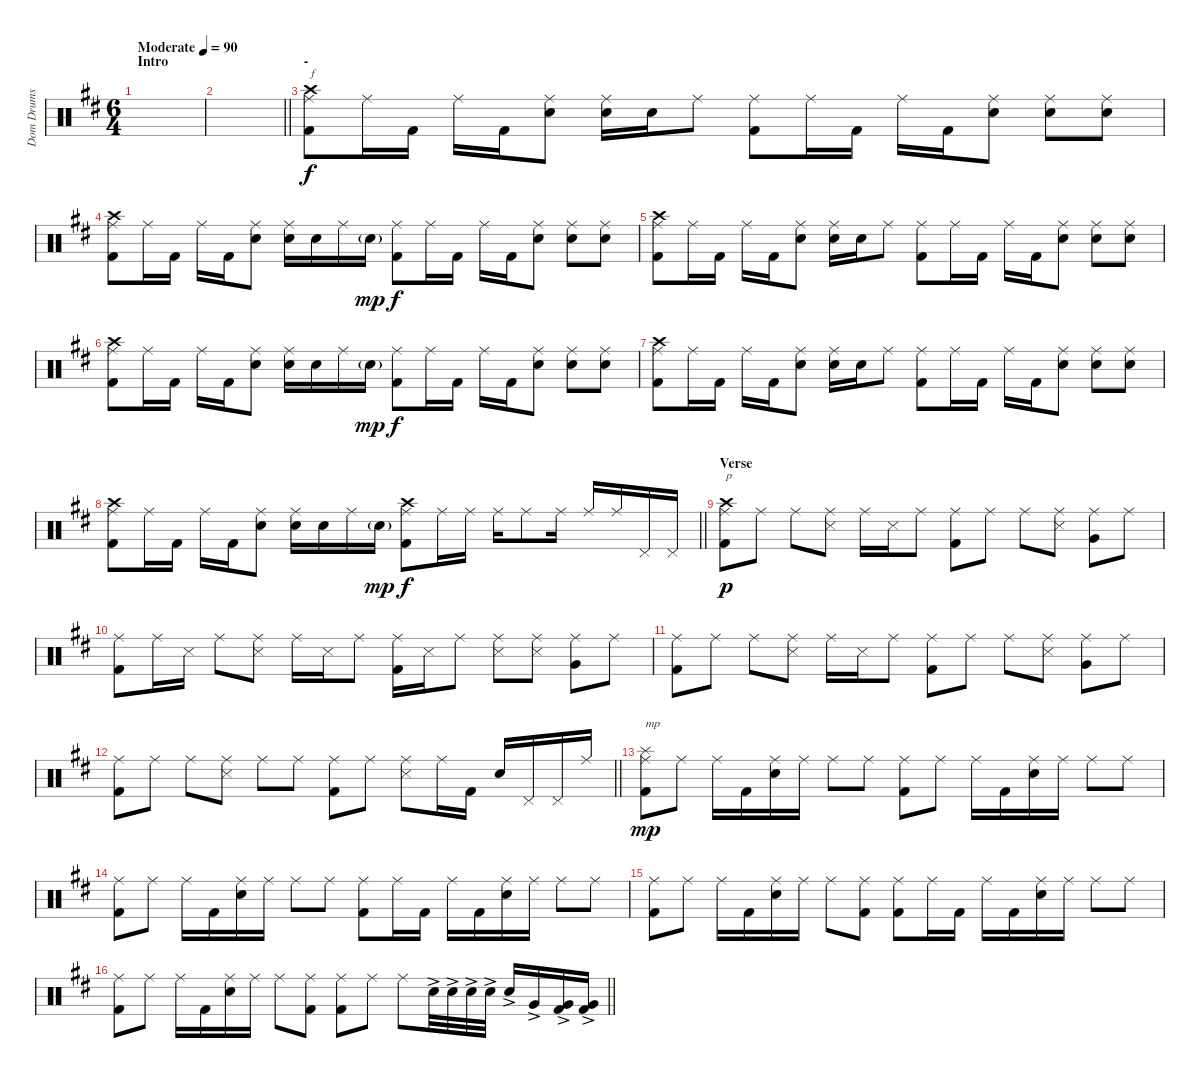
\track ("Dom Drums" "Dom Drums") {instrument percussion}
\staff {score}
\articulation defaults
\ts (6 4)
\section ("" "Intro")
\tempo (90 "Moderate")
\clef neutral
\ks bminor
|
\barLineRight lightlight
|
\section ("" "-")
("Crash high (hit)" "Ride (middle)" "Kick (hit) 2").8{txt "f"} "Ride (middle)".16 "Kick (hit) 2".16 "Ride (middle)".16 "Kick (hit) 2".16 ("Ride (middle)" "Electric Snare (hit)").8 ("Ride (middle)" "Electric Snare (hit)").16 "Electric Snare (hit)".16 "Ride (middle)".8 ("Ride (middle)" "Kick (hit) 2").8 "Ride (middle)".16 "Kick (hit) 2".16 "Ride (middle)".16 "Kick (hit) 2".16 ("Ride (middle)" "Electric Snare (hit)").8 ("Ride (middle)" "Electric Snare (hit)").8 ("Ride (middle)" "Electric Snare (hit)").8 |
("Crash high (hit)" "Ride (middle)" "Kick (hit) 2").8 "Ride (middle)".16 "Kick (hit) 2".16 "Ride (middle)".16 "Kick (hit) 2".16 ("Ride (middle)" "Electric Snare (hit)").8 ("Ride (middle)" "Electric Snare (hit)").16 "Electric Snare (hit)".16 "Ride (middle)".16 "Electric Snare (hit)"{g}.16{dy mp} ("Ride (middle)" "Kick (hit) 2").8{dy f} "Ride (middle)".16 "Kick (hit) 2".16 "Ride (middle)".16 "Kick (hit) 2".16 ("Ride (middle)" "Electric Snare (hit)").8 ("Ride (middle)" "Electric Snare (hit)").8 ("Ride (middle)" "Electric Snare (hit)").8 |
("Crash high (hit)" "Ride (middle)" "Kick (hit) 2").8 "Ride (middle)".16 "Kick (hit) 2".16 "Ride (middle)".16 "Kick (hit) 2".16 ("Ride (middle)" "Electric Snare (hit)").8 ("Ride (middle)" "Electric Snare (hit)").16 "Electric Snare (hit)".16 "Ride (middle)".8 ("Ride (middle)" "Kick (hit) 2").8 "Ride (middle)".16 "Kick (hit) 2".16 "Ride (middle)".16 "Kick (hit) 2".16 ("Ride (middle)" "Electric Snare (hit)").8 ("Ride (middle)" "Electric Snare (hit)").8 ("Ride (middle)" "Electric Snare (hit)").8 |
("Crash high (hit)" "Ride (middle)" "Kick (hit) 2").8 "Ride (middle)".16 "Kick (hit) 2".16 "Ride (middle)".16 "Kick (hit) 2".16 ("Ride (middle)" "Electric Snare (hit)").8 ("Ride (middle)" "Electric Snare (hit)").16 "Electric Snare (hit)".16 "Ride (middle)".16 "Electric Snare (hit)"{g}.16{dy mp} ("Ride (middle)" "Kick (hit) 2").8{dy f} "Ride (middle)".16 "Kick (hit) 2".16 "Ride (middle)".16 "Kick (hit) 2".16 ("Ride (middle)" "Electric Snare (hit)").8 ("Ride (middle)" "Electric Snare (hit)").8 ("Ride (middle)" "Electric Snare (hit)").8 |
("Crash high (hit)" "Ride (middle)" "Kick (hit) 2").8 "Ride (middle)".16 "Kick (hit) 2".16 "Ride (middle)".16 "Kick (hit) 2".16 ("Ride (middle)" "Electric Snare (hit)").8 ("Ride (middle)" "Electric Snare (hit)").16 "Electric Snare (hit)".16 "Ride (middle)".8 ("Ride (middle)" "Kick (hit) 2").8 "Ride (middle)".16 "Kick (hit) 2".16 "Ride (middle)".16 "Kick (hit) 2".16 ("Ride (middle)" "Electric Snare (hit)").8 ("Ride (middle)" "Electric Snare (hit)").8 ("Ride (middle)" "Electric Snare (hit)").8 |
\barLineRight lightlight
("Crash high (hit)" "Ride (middle)" "Kick (hit) 2").8 "Ride (middle)".16 "Kick (hit) 2".16 "Ride (middle)".16 "Kick (hit) 2".16 ("Ride (middle)" "Electric Snare (hit)").8 ("Ride (middle)" "Electric Snare (hit)").16 "Electric Snare (hit)".16 "Ride (middle)".16 "Electric Snare (hit)"{g}.16{dy mp} ("Crash high (hit)" "Ride (middle)" "Kick (hit) 2").8{dy f} "Ride (middle)".16 "Ride (middle)".16 "Ride (middle)".16 "Ride (middle)".8 "Ride (middle)".16 "Ride (middle)".16 "Ride (middle)".16 "Pedal Hi-Hat (hit)".16 "Pedal Hi-Hat (hit)".16 |
\section ("" "Verse")
("Crash high (hit)" "Ride (middle)" "Kick (hit) 2").8{txt "p" dy p} "Ride (middle)".8 "Ride (middle)".8 ("Ride (middle)" "Snare (side stick) 3").8 "Ride (middle)".16 "Snare (side stick) 3".16 "Ride (middle)".8 ("Ride (middle)" "Kick (hit) 2").8 "Ride (middle)".8 "Ride (middle)".8 ("Ride (middle)" "Snare (side stick) 3").8 ("Ride (middle)" "Very Low Tom (hit)").8 "Ride (middle)".8 |
("Ride (middle)" "Kick (hit) 2").8 "Ride (middle)".16 "Snare (side stick) 3".16 "Ride (middle)".8 ("Ride (middle)" "Snare (side stick) 3").8 "Ride (middle)".16 "Snare (side stick) 3".16 "Ride (middle)".8 ("Ride (middle)" "Kick (hit) 2").16 "Snare (side stick) 3".16 "Ride (middle)".8 ("Ride (middle)" "Snare (side stick) 3").8 ("Ride (middle)" "Snare (side stick) 3").8 ("Ride (middle)" "Very Low Tom (hit)").8 "Ride (middle)".8 |
("Ride (middle)" "Kick (hit) 2").8 "Ride (middle)".8 "Ride (middle)".8 ("Ride (middle)" "Snare (side stick) 3").8 "Ride (middle)".16 "Snare (side stick) 3".16 "Ride (middle)".8 ("Ride (middle)" "Kick (hit) 2").8 "Ride (middle)".8 "Ride (middle)".8 ("Ride (middle)" "Snare (side stick) 3").8 ("Ride (middle)" "Very Low Tom (hit)").8 "Ride (middle)".8 |
\barLineRight lightlight
("Ride (middle)" "Kick (hit) 2").8 "Ride (middle)".8 "Ride (middle)".8 ("Ride (middle)" "Snare (side stick) 3").8 "Ride (middle)".8 "Ride (middle)".8 ("Ride (middle)" "Kick (hit) 2").8 "Ride (middle)".8 ("Ride (middle)" "Snare (side stick) 3").8 "Ride (middle)".16 "Kick (hit) 2".16 "Electric Snare (hit)".16 "Pedal Hi-Hat (hit)".16 "Pedal Hi-Hat (hit)".16 "Ride (middle)".16 |
\section ("" "")
("Splash (hit)" "Ride (middle)" "Kick (hit) 2").8{txt "mp" dy mp} "Ride (middle)".8 "Ride (middle)".16 "Kick (hit) 2".16 ("Ride (middle)" "Electric Snare (hit)").16 "Ride (middle)".16 "Ride (middle)".8 "Ride (middle)".8 ("Ride (middle)" "Kick (hit) 2").8 "Ride (middle)".8 "Ride (middle)".16 "Kick (hit) 2".16 ("Ride (middle)" "Electric Snare (hit)").16 "Ride (middle)".16 "Ride (middle)".8 "Ride (middle)".8 |
("Ride (middle)" "Kick (hit) 2").8 "Ride (middle)".8 "Ride (middle)".16 "Kick (hit) 2".16 ("Ride (middle)" "Electric Snare (hit)").16 "Ride (middle)".16 "Ride (middle)".8 "Ride (middle)".8 ("Ride (middle)" "Kick (hit) 2").8 "Ride (middle)".16 "Kick (hit) 2".16 "Ride (middle)".16 "Kick (hit) 2".16 ("Ride (middle)" "Electric Snare (hit)").16 "Ride (middle)".16 "Ride (middle)".8 "Ride (middle)".8 |
("Ride (middle)" "Kick (hit) 2").8 "Ride (middle)".8 "Ride (middle)".16 "Kick (hit) 2".16 ("Ride (middle)" "Electric Snare (hit)").16 "Ride (middle)".16 "Ride (middle)".8 ("Ride (middle)" "Kick (hit) 2").8 ("Ride (middle)" "Kick (hit) 2").8 "Ride (middle)".16 "Kick (hit) 2".16 "Ride (middle)".16 "Kick (hit) 2".16 ("Ride (middle)" "Electric Snare (hit)").16 "Ride (middle)".16 "Ride (middle)".8 "Ride (middle)".8 |
\barLineRight lightlight
("Ride (middle)" "Kick (hit) 2").8 "Ride (middle)".8 "Ride (middle)".16 "Kick (hit) 2".16 ("Ride (middle)" "Electric Snare (hit)").16 "Ride (middle)".16 "Ride (middle)".8 ("Ride (middle)" "Kick (hit) 2").8 ("Ride (middle)" "Kick (hit) 2").8 "Ride (middle)".8 "Ride (middle)".8 "Electric Snare (hit)"{ac}.32 "Electric Snare (hit)"{ac}.32 "Electric Snare (hit)"{ac}.32 "Electric Snare (hit)"{ac}.32 "Electric Snare (hit)"{ac}.16 "Very Low Tom (hit)"{ac}.16 ("Very Low Tom (hit)"{ac} "Kick (hit) 2"{ac}).16 ("Very Low Tom (hit)"{ac} "Kick (hit) 2"{ac}).16
